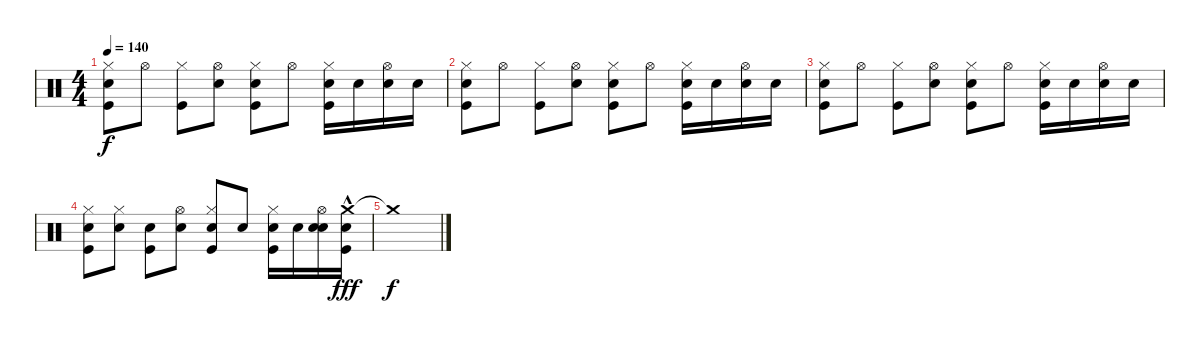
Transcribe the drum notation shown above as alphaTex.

\track "" {instrument percussion}
\staff {score}
\articulation defaults
\ts (4 4)
\tempo 140
\clef neutral
\ks c
("Snare (hit) 2" "Hi-Hat (closed)" "Kick (hit)").8{dy f} "Hi-Hat (open)".8 ("Hi-Hat (closed)" "Kick (hit)").8 ("Snare (hit) 2" "Hi-Hat (open)").8 ("Snare (hit) 2" "Hi-Hat (closed)" "Kick (hit)").8 "Hi-Hat (open)".8 ("Snare (hit) 2" "Hi-Hat (closed)" "Kick (hit)").16 "Snare (hit) 2".16 ("Snare (hit) 2" "Hi-Hat (open)").16 "Snare (hit) 2".16 |
("Snare (hit) 2" "Hi-Hat (closed)" "Kick (hit)").8 "Hi-Hat (open)".8 ("Hi-Hat (closed)" "Kick (hit)").8 ("Snare (hit) 2" "Hi-Hat (open)").8 ("Snare (hit) 2" "Hi-Hat (closed)" "Kick (hit)").8 "Hi-Hat (open)".8 ("Snare (hit) 2" "Hi-Hat (closed)" "Kick (hit)").16 "Snare (hit) 2".16 ("Snare (hit) 2" "Hi-Hat (open)").16 "Snare (hit) 2".16 |
("Snare (hit) 2" "Hi-Hat (closed)" "Kick (hit)").8 "Hi-Hat (open)".8 ("Hi-Hat (closed)" "Kick (hit)").8 ("Snare (hit) 2" "Hi-Hat (open)").8 ("Snare (hit) 2" "Hi-Hat (closed)" "Kick (hit)").8 "Hi-Hat (open)".8 ("Snare (hit) 2" "Hi-Hat (closed)" "Kick (hit)").16 "Snare (hit) 2".16 ("Snare (hit) 2" "Hi-Hat (open)").16 "Snare (hit) 2".16 |
("Snare (hit) 2" "Hi-Hat (closed)" "Kick (hit)").8 ("Snare (hit) 2" "Hi-Hat (closed)").8 ("Snare (hit) 2" "Kick (hit)").8 ("Snare (hit) 2" "Hi-Hat (open)").8 ("Snare (hit) 2" "Hi-Hat (closed)" "Kick (hit)").8 "Snare (hit) 2".8 ("Snare (hit) 2" "Hi-Hat (closed)" "Kick (hit)").16 "Snare (hit) 2".16 ("Snare (hit) 2" "Snare (hit) 2" "Hi-Hat (open)").16 ("Crash medium (hit)"{hac} "Kick (hit)" "Snare (hit) 2").16{dy fff} |
"Crash medium (hit)"{t}.1{dy f}
